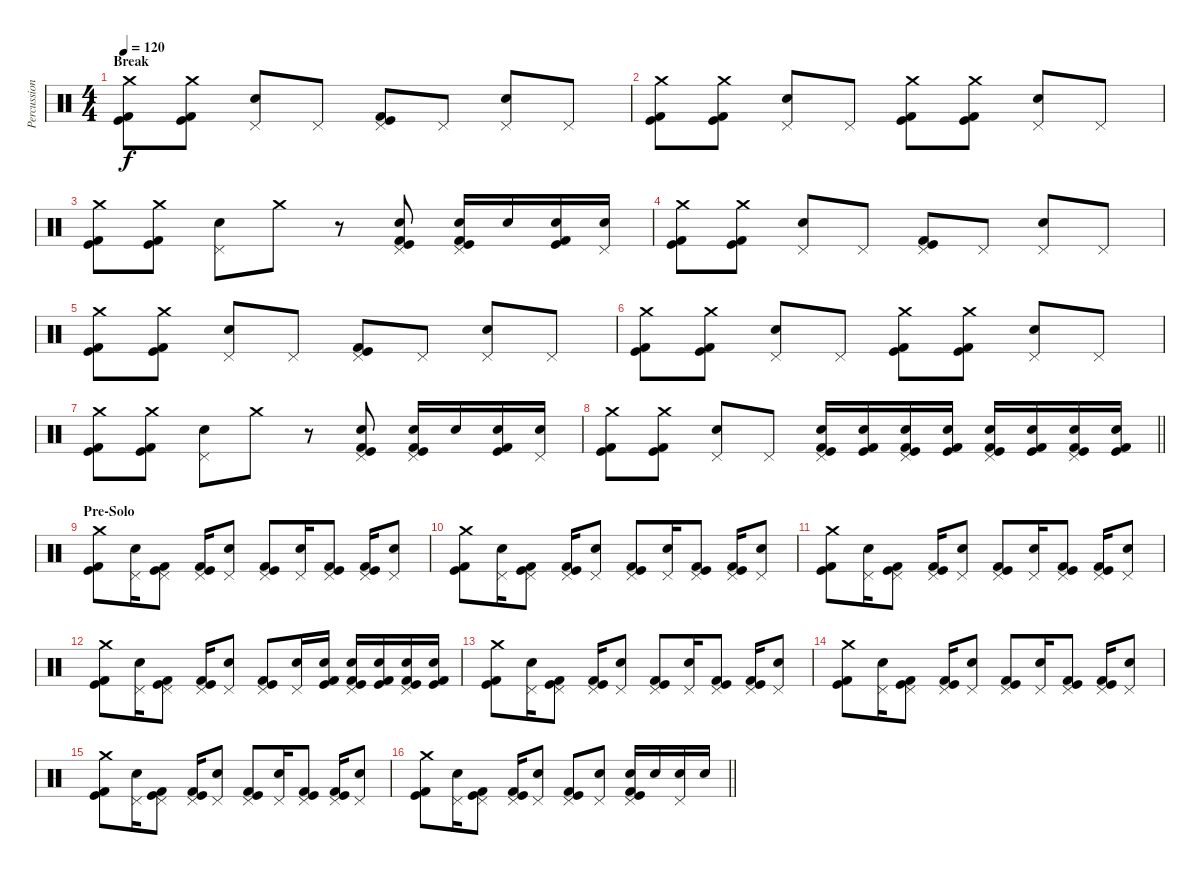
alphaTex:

\track ("Percussion" "Percussion") {instrument percussion}
\staff {score}
\articulation defaults
\ts (4 4)
\section ("" "Break")
\tempo 120
\clef neutral
\ks c
("Crash medium (hit)" "Kick (hit)" "Kick (hit) 2").8{dy f} ("Crash medium (hit)" "Kick (hit)" "Kick (hit) 2").8 ("Pedal Hi-Hat (hit)" "Electric Snare (hit)").8 "Pedal Hi-Hat (hit)".8 ("Pedal Hi-Hat (hit)" "Kick (hit)" "Kick (hit) 2").8 "Pedal Hi-Hat (hit)".8 ("Pedal Hi-Hat (hit)" "Electric Snare (hit)").8 "Pedal Hi-Hat (hit)".8 |
("Crash medium (hit)" "Kick (hit)" "Kick (hit) 2").8 ("Crash medium (hit)" "Kick (hit)" "Kick (hit) 2").8 ("Pedal Hi-Hat (hit)" "Electric Snare (hit)").8 "Pedal Hi-Hat (hit)".8 ("Crash medium (hit)" "Kick (hit)" "Kick (hit) 2").8 ("Crash medium (hit)" "Kick (hit)" "Kick (hit) 2").8 ("Pedal Hi-Hat (hit)" "Electric Snare (hit)").8 "Pedal Hi-Hat (hit)".8 |
("Crash medium (hit)" "Kick (hit)" "Kick (hit) 2").8 ("Crash medium (hit)" "Kick (hit)" "Kick (hit) 2").8 ("Pedal Hi-Hat (hit)" "Electric Snare (hit)").8 "Crash medium (hit)".8 r.8 ("Pedal Hi-Hat (hit)" "Electric Snare (hit)" "Kick (hit)" "Kick (hit) 2").8 ("Pedal Hi-Hat (hit)" "Electric Snare (hit)" "Kick (hit)" "Kick (hit) 2").16 "Electric Snare (hit)".16 ("Electric Snare (hit)" "Kick (hit)" "Kick (hit) 2").16 ("Pedal Hi-Hat (hit)" "Electric Snare (hit)").16 |
("Crash medium (hit)" "Kick (hit)" "Kick (hit) 2").8 ("Crash medium (hit)" "Kick (hit)" "Kick (hit) 2").8 ("Pedal Hi-Hat (hit)" "Electric Snare (hit)").8 "Pedal Hi-Hat (hit)".8 ("Pedal Hi-Hat (hit)" "Kick (hit)" "Kick (hit) 2").8 "Pedal Hi-Hat (hit)".8 ("Pedal Hi-Hat (hit)" "Electric Snare (hit)").8 "Pedal Hi-Hat (hit)".8 |
("Crash medium (hit)" "Kick (hit)" "Kick (hit) 2").8 ("Crash medium (hit)" "Kick (hit)" "Kick (hit) 2").8 ("Pedal Hi-Hat (hit)" "Electric Snare (hit)").8 "Pedal Hi-Hat (hit)".8 ("Pedal Hi-Hat (hit)" "Kick (hit)" "Kick (hit) 2").8 "Pedal Hi-Hat (hit)".8 ("Pedal Hi-Hat (hit)" "Electric Snare (hit)").8 "Pedal Hi-Hat (hit)".8 |
("Crash medium (hit)" "Kick (hit)" "Kick (hit) 2").8 ("Crash medium (hit)" "Kick (hit)" "Kick (hit) 2").8 ("Pedal Hi-Hat (hit)" "Electric Snare (hit)").8 "Pedal Hi-Hat (hit)".8 ("Crash medium (hit)" "Kick (hit)" "Kick (hit) 2").8 ("Crash medium (hit)" "Kick (hit)" "Kick (hit) 2").8 ("Pedal Hi-Hat (hit)" "Electric Snare (hit)").8 "Pedal Hi-Hat (hit)".8 |
("Crash medium (hit)" "Kick (hit)" "Kick (hit) 2").8 ("Crash medium (hit)" "Kick (hit)" "Kick (hit) 2").8 ("Pedal Hi-Hat (hit)" "Electric Snare (hit)").8 "Crash medium (hit)".8 r.8 ("Pedal Hi-Hat (hit)" "Electric Snare (hit)" "Kick (hit)" "Kick (hit) 2").8 ("Pedal Hi-Hat (hit)" "Electric Snare (hit)" "Kick (hit)" "Kick (hit) 2").16 "Electric Snare (hit)".16 ("Electric Snare (hit)" "Kick (hit)" "Kick (hit) 2").16 ("Pedal Hi-Hat (hit)" "Electric Snare (hit)").16 |
\barLineRight lightlight
("Crash medium (hit)" "Kick (hit)" "Kick (hit) 2").8 ("Crash medium (hit)" "Kick (hit)" "Kick (hit) 2").8 ("Pedal Hi-Hat (hit)" "Electric Snare (hit)").8 "Pedal Hi-Hat (hit)".8 ("Pedal Hi-Hat (hit)" "Electric Snare (hit)" "Kick (hit)" "Kick (hit) 2").16 ("Electric Snare (hit)" "Kick (hit)" "Kick (hit) 2").16 ("Pedal Hi-Hat (hit)" "Electric Snare (hit)" "Kick (hit)" "Kick (hit) 2").16 ("Electric Snare (hit)" "Kick (hit)" "Kick (hit) 2").16 ("Pedal Hi-Hat (hit)" "Electric Snare (hit)" "Kick (hit)" "Kick (hit) 2").16 ("Electric Snare (hit)" "Kick (hit)" "Kick (hit) 2").16 ("Pedal Hi-Hat (hit)" "Electric Snare (hit)" "Kick (hit)" "Kick (hit) 2").16 ("Electric Snare (hit)" "Kick (hit)" "Kick (hit) 2").16 |
\section ("" "Pre-Solo")
("Crash medium (hit)" "Kick (hit)" "Kick (hit) 2").8 ("Pedal Hi-Hat (hit)" "Electric Snare (hit)").16 ("Pedal Hi-Hat (hit)" "Kick (hit)" "Kick (hit) 2").8 ("Pedal Hi-Hat (hit)" "Kick (hit)" "Kick (hit) 2").16 ("Pedal Hi-Hat (hit)" "Electric Snare (hit)").8 ("Pedal Hi-Hat (hit)" "Kick (hit)" "Kick (hit) 2").8 ("Pedal Hi-Hat (hit)" "Electric Snare (hit)").16 ("Pedal Hi-Hat (hit)" "Kick (hit)" "Kick (hit) 2").8 ("Pedal Hi-Hat (hit)" "Kick (hit)" "Kick (hit) 2").16 ("Pedal Hi-Hat (hit)" "Electric Snare (hit)").8 |
("Crash medium (hit)" "Kick (hit)" "Kick (hit) 2").8 ("Pedal Hi-Hat (hit)" "Electric Snare (hit)").16 ("Pedal Hi-Hat (hit)" "Kick (hit)" "Kick (hit) 2").8 ("Pedal Hi-Hat (hit)" "Kick (hit)" "Kick (hit) 2").16 ("Pedal Hi-Hat (hit)" "Electric Snare (hit)").8 ("Pedal Hi-Hat (hit)" "Kick (hit)" "Kick (hit) 2").8 ("Pedal Hi-Hat (hit)" "Electric Snare (hit)").16 ("Pedal Hi-Hat (hit)" "Kick (hit)" "Kick (hit) 2").8 ("Pedal Hi-Hat (hit)" "Kick (hit)" "Kick (hit) 2").16 ("Pedal Hi-Hat (hit)" "Electric Snare (hit)").8 |
("Crash medium (hit)" "Kick (hit)" "Kick (hit) 2").8 ("Pedal Hi-Hat (hit)" "Electric Snare (hit)").16 ("Pedal Hi-Hat (hit)" "Kick (hit)" "Kick (hit) 2").8 ("Pedal Hi-Hat (hit)" "Kick (hit)" "Kick (hit) 2").16 ("Pedal Hi-Hat (hit)" "Electric Snare (hit)").8 ("Pedal Hi-Hat (hit)" "Kick (hit)" "Kick (hit) 2").8 ("Pedal Hi-Hat (hit)" "Electric Snare (hit)").16 ("Pedal Hi-Hat (hit)" "Kick (hit)" "Kick (hit) 2").8 ("Pedal Hi-Hat (hit)" "Kick (hit)" "Kick (hit) 2").16 ("Pedal Hi-Hat (hit)" "Electric Snare (hit)").8 |
("Crash medium (hit)" "Kick (hit)" "Kick (hit) 2").8 ("Pedal Hi-Hat (hit)" "Electric Snare (hit)").16 ("Pedal Hi-Hat (hit)" "Kick (hit)" "Kick (hit) 2").8 ("Pedal Hi-Hat (hit)" "Kick (hit)" "Kick (hit) 2").16 ("Pedal Hi-Hat (hit)" "Electric Snare (hit)").8 ("Pedal Hi-Hat (hit)" "Kick (hit)" "Kick (hit) 2").8 ("Pedal Hi-Hat (hit)" "Electric Snare (hit)").16 ("Electric Snare (hit)" "Kick (hit)" "Kick (hit) 2").16 ("Pedal Hi-Hat (hit)" "Electric Snare (hit)" "Kick (hit)" "Kick (hit) 2").16 ("Electric Snare (hit)" "Kick (hit)" "Kick (hit) 2").16 ("Pedal Hi-Hat (hit)" "Electric Snare (hit)" "Kick (hit)" "Kick (hit) 2").16 ("Electric Snare (hit)" "Kick (hit)" "Kick (hit) 2").16 |
("Crash medium (hit)" "Kick (hit)" "Kick (hit) 2").8 ("Pedal Hi-Hat (hit)" "Electric Snare (hit)").16 ("Pedal Hi-Hat (hit)" "Kick (hit)" "Kick (hit) 2").8 ("Pedal Hi-Hat (hit)" "Kick (hit)" "Kick (hit) 2").16 ("Pedal Hi-Hat (hit)" "Electric Snare (hit)").8 ("Pedal Hi-Hat (hit)" "Kick (hit)" "Kick (hit) 2").8 ("Pedal Hi-Hat (hit)" "Electric Snare (hit)").16 ("Pedal Hi-Hat (hit)" "Kick (hit)" "Kick (hit) 2").8 ("Pedal Hi-Hat (hit)" "Kick (hit)" "Kick (hit) 2").16 ("Pedal Hi-Hat (hit)" "Electric Snare (hit)").8 |
("Crash medium (hit)" "Kick (hit)" "Kick (hit) 2").8 ("Pedal Hi-Hat (hit)" "Electric Snare (hit)").16 ("Pedal Hi-Hat (hit)" "Kick (hit)" "Kick (hit) 2").8 ("Pedal Hi-Hat (hit)" "Kick (hit)" "Kick (hit) 2").16 ("Pedal Hi-Hat (hit)" "Electric Snare (hit)").8 ("Pedal Hi-Hat (hit)" "Kick (hit)" "Kick (hit) 2").8 ("Pedal Hi-Hat (hit)" "Electric Snare (hit)").16 ("Pedal Hi-Hat (hit)" "Kick (hit)" "Kick (hit) 2").8 ("Pedal Hi-Hat (hit)" "Kick (hit)" "Kick (hit) 2").16 ("Pedal Hi-Hat (hit)" "Electric Snare (hit)").8 |
("Crash medium (hit)" "Kick (hit)" "Kick (hit) 2").8 ("Pedal Hi-Hat (hit)" "Electric Snare (hit)").16 ("Pedal Hi-Hat (hit)" "Kick (hit)" "Kick (hit) 2").8 ("Pedal Hi-Hat (hit)" "Kick (hit)" "Kick (hit) 2").16 ("Pedal Hi-Hat (hit)" "Electric Snare (hit)").8 ("Pedal Hi-Hat (hit)" "Kick (hit)" "Kick (hit) 2").8 ("Pedal Hi-Hat (hit)" "Electric Snare (hit)").16 ("Pedal Hi-Hat (hit)" "Kick (hit)" "Kick (hit) 2").8 ("Pedal Hi-Hat (hit)" "Kick (hit)" "Kick (hit) 2").16 ("Pedal Hi-Hat (hit)" "Electric Snare (hit)").8 |
\barLineRight lightlight
("Crash medium (hit)" "Kick (hit)" "Kick (hit) 2").8 ("Pedal Hi-Hat (hit)" "Electric Snare (hit)").16 ("Pedal Hi-Hat (hit)" "Kick (hit)" "Kick (hit) 2").8 ("Pedal Hi-Hat (hit)" "Kick (hit)" "Kick (hit) 2").16 ("Pedal Hi-Hat (hit)" "Electric Snare (hit)").8 ("Pedal Hi-Hat (hit)" "Kick (hit)" "Kick (hit) 2").8 ("Pedal Hi-Hat (hit)" "Electric Snare (hit)").8 ("Pedal Hi-Hat (hit)" "Electric Snare (hit)" "Kick (hit)" "Kick (hit) 2").16 "Electric Snare (hit)".16 ("Pedal Hi-Hat (hit)" "Electric Snare (hit)").16 "Electric Snare (hit)".16
